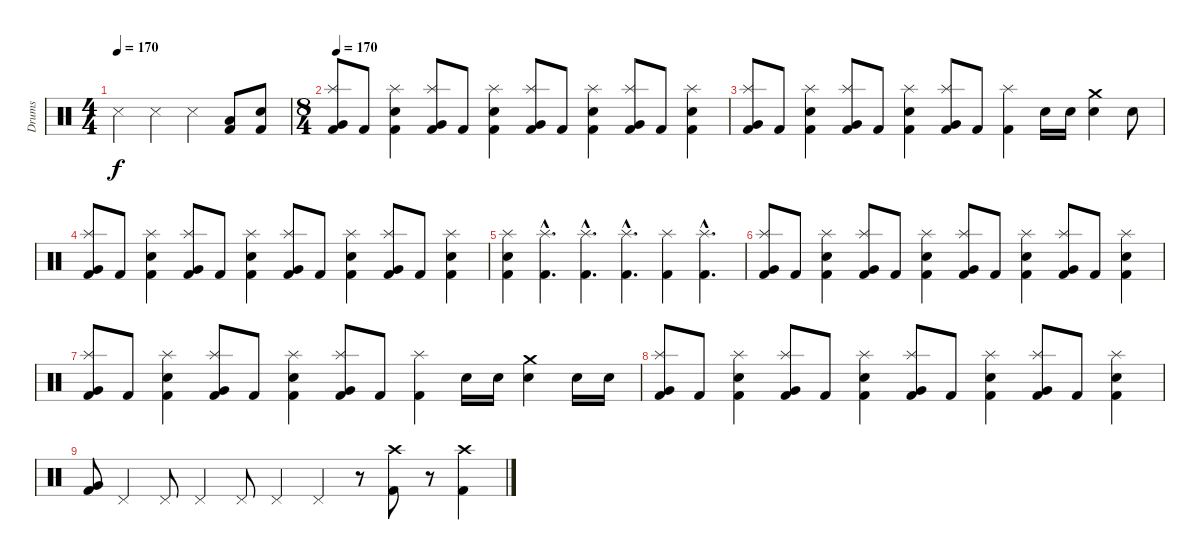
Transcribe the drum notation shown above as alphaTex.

\track ("Drums" "Drums") {instrument percussion}
\staff {score}
\articulation defaults
\ts (4 4)
\tempo 170
\tempo 180
\tempo 170
\clef neutral
\ks c "Snare (side stick) 3".4{dy f} "Snare (side stick) 3".4 "Snare (side stick) 3".4
("Low Tom (hit)" "Kick (hit) 2").8 ("Snare (hit) 2" "Kick (hit) 2").8 |
\ts (8 4)
\tempo 170
("Splash (hit)" "Kick (hit) 2" "Very Low Tom (hit)").8 "Kick (hit) 2".8 ("Splash (hit)" "Kick (hit) 2" "Snare (hit) 2").4 ("Splash (hit)" "Kick (hit) 2" "Very Low Tom (hit)").8 "Kick (hit) 2".8 ("Splash (hit)" "Kick (hit) 2" "Snare (hit) 2").4 ("Splash (hit)" "Kick (hit) 2" "Very Low Tom (hit)").8 "Kick (hit) 2".8 ("Splash (hit)" "Kick (hit) 2" "Snare (hit) 2").4 ("Splash (hit)" "Kick (hit) 2" "Very Low Tom (hit)").8 "Kick (hit) 2".8 ("Splash (hit)" "Kick (hit) 2" "Snare (hit) 2").4 |
("Splash (hit)" "Kick (hit) 2" "Very Low Tom (hit)").8 "Kick (hit) 2".8 ("Splash (hit)" "Kick (hit) 2" "Snare (hit) 2").4 ("Splash (hit)" "Kick (hit) 2" "Very Low Tom (hit)").8 "Kick (hit) 2".8 ("Splash (hit)" "Kick (hit) 2" "Snare (hit) 2").4 ("Splash (hit)" "Kick (hit) 2" "Very Low Tom (hit)").8 "Kick (hit) 2".8 ("Splash (hit)" "Kick (hit) 2").4 "Snare (hit) 2".16 "Snare (hit) 2".16 ("Crash medium (hit)" "Snare (hit) 2").4 "Snare (hit) 2".8 |
("Splash (hit)" "Kick (hit) 2" "Very Low Tom (hit)").8 "Kick (hit) 2".8 ("Splash (hit)" "Kick (hit) 2" "Snare (hit) 2").4 ("Splash (hit)" "Kick (hit) 2" "Very Low Tom (hit)").8 "Kick (hit) 2".8 ("Splash (hit)" "Kick (hit) 2" "Snare (hit) 2").4 ("Splash (hit)" "Kick (hit) 2" "Very Low Tom (hit)").8 "Kick (hit) 2".8 ("Splash (hit)" "Kick (hit) 2" "Snare (hit) 2").4 ("Splash (hit)" "Kick (hit) 2" "Very Low Tom (hit)").8 "Kick (hit) 2".8 ("Splash (hit)" "Kick (hit) 2" "Snare (hit) 2").4 |
("Splash (hit)" "Kick (hit) 2" "Snare (hit) 2").4 ("Splash (hit)"{hac} "Kick (hit) 2"{hac}).4{d} ("Splash (hit)"{hac} "Kick (hit) 2"{hac}).4{d} ("Splash (hit)"{hac} "Kick (hit) 2"{hac}).4{d} ("Splash (hit)" "Kick (hit) 2").4 ("Splash (hit)"{hac} "Kick (hit) 2"{hac}).4{d} |
("Splash (hit)" "Kick (hit) 2" "Very Low Tom (hit)").8 "Kick (hit) 2".8 ("Splash (hit)" "Kick (hit) 2" "Snare (hit) 2").4 ("Splash (hit)" "Kick (hit) 2" "Very Low Tom (hit)").8 "Kick (hit) 2".8 ("Splash (hit)" "Kick (hit) 2" "Snare (hit) 2").4 ("Splash (hit)" "Kick (hit) 2" "Very Low Tom (hit)").8 "Kick (hit) 2".8 ("Splash (hit)" "Kick (hit) 2" "Snare (hit) 2").4 ("Splash (hit)" "Kick (hit) 2" "Very Low Tom (hit)").8 "Kick (hit) 2".8 ("Splash (hit)" "Kick (hit) 2" "Snare (hit) 2").4 |
("Splash (hit)" "Kick (hit) 2" "Very Low Tom (hit)").8 "Kick (hit) 2".8 ("Splash (hit)" "Kick (hit) 2" "Snare (hit) 2").4 ("Splash (hit)" "Kick (hit) 2" "Very Low Tom (hit)").8 "Kick (hit) 2".8 ("Splash (hit)" "Kick (hit) 2" "Snare (hit) 2").4 ("Splash (hit)" "Kick (hit) 2" "Very Low Tom (hit)").8 "Kick (hit) 2".8 ("Splash (hit)" "Kick (hit) 2").4 "Snare (hit) 2".16 "Snare (hit) 2".16 ("Crash medium (hit)" "Snare (hit) 2").4 "Snare (hit) 2".16 "Snare (hit) 2".16 |
("Splash (hit)" "Kick (hit) 2" "Very Low Tom (hit)").8 "Kick (hit) 2".8 ("Splash (hit)" "Kick (hit) 2" "Snare (hit) 2").4 ("Splash (hit)" "Kick (hit) 2" "Very Low Tom (hit)").8 "Kick (hit) 2".8 ("Splash (hit)" "Kick (hit) 2" "Snare (hit) 2").4 ("Splash (hit)" "Kick (hit) 2" "Very Low Tom (hit)").8 "Kick (hit) 2".8 ("Splash (hit)" "Kick (hit) 2" "Snare (hit) 2").4 ("Splash (hit)" "Kick (hit) 2" "Very Low Tom (hit)").8 "Kick (hit) 2".8 ("Splash (hit)" "Kick (hit) 2" "Snare (hit) 2").4 |
("Kick (hit) 2" "Very Low Tom (hit)").8 "Pedal Hi-Hat (hit)".4 "Pedal Hi-Hat (hit)".8 "Pedal Hi-Hat (hit)".4 "Pedal Hi-Hat (hit)".8 "Pedal Hi-Hat (hit)".4 "Pedal Hi-Hat (hit)".4 r.8 ("Crash high (hit)" "Kick (hit) 2").8 r.8 ("Crash high (hit)" "Kick (hit) 2").4
